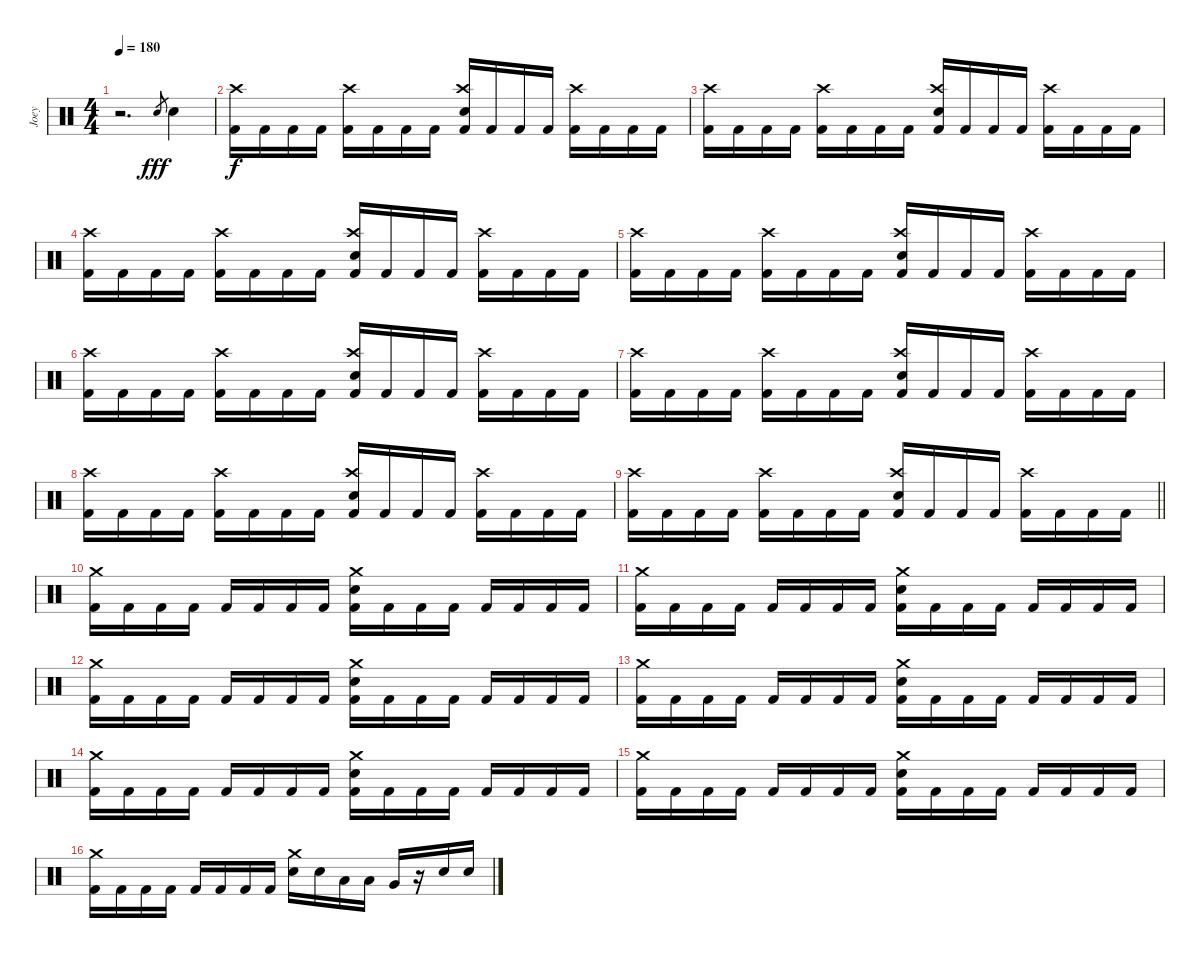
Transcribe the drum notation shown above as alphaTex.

\track ("Joey" "Joey") {instrument percussion}
\staff {score}
\articulation defaults
\ts (4 4)
\tempo 180
\clef neutral
\ks c
r.2{d dy f} "Electric Snare (hit)".8{gr dy fff} "Electric Snare (hit)".4 |
("Crash high (hit)" "Kick (hit) 2").16{dy f} "Kick (hit) 2".16 "Kick (hit) 2".16 "Kick (hit) 2".16 ("Crash high (hit)" "Kick (hit) 2").16 "Kick (hit) 2".16 "Kick (hit) 2".16 "Kick (hit) 2".16 ("Crash high (hit)" "Electric Snare (hit)" "Kick (hit) 2").16 "Kick (hit) 2".16 "Kick (hit) 2".16 "Kick (hit) 2".16 ("Crash high (hit)" "Kick (hit) 2").16 "Kick (hit) 2".16 "Kick (hit) 2".16 "Kick (hit) 2".16 |
("Crash high (hit)" "Kick (hit) 2").16 "Kick (hit) 2".16 "Kick (hit) 2".16 "Kick (hit) 2".16 ("Crash high (hit)" "Kick (hit) 2").16 "Kick (hit) 2".16 "Kick (hit) 2".16 "Kick (hit) 2".16 ("Crash high (hit)" "Electric Snare (hit)" "Kick (hit) 2").16 "Kick (hit) 2".16 "Kick (hit) 2".16 "Kick (hit) 2".16 ("Crash high (hit)" "Kick (hit) 2").16 "Kick (hit) 2".16 "Kick (hit) 2".16 "Kick (hit) 2".16 |
("Crash high (hit)" "Kick (hit) 2").16 "Kick (hit) 2".16 "Kick (hit) 2".16 "Kick (hit) 2".16 ("Crash high (hit)" "Kick (hit) 2").16 "Kick (hit) 2".16 "Kick (hit) 2".16 "Kick (hit) 2".16 ("Crash high (hit)" "Electric Snare (hit)" "Kick (hit) 2").16 "Kick (hit) 2".16 "Kick (hit) 2".16 "Kick (hit) 2".16 ("Crash high (hit)" "Kick (hit) 2").16 "Kick (hit) 2".16 "Kick (hit) 2".16 "Kick (hit) 2".16 |
("Crash high (hit)" "Kick (hit) 2").16 "Kick (hit) 2".16 "Kick (hit) 2".16 "Kick (hit) 2".16 ("Crash high (hit)" "Kick (hit) 2").16 "Kick (hit) 2".16 "Kick (hit) 2".16 "Kick (hit) 2".16 ("Crash high (hit)" "Electric Snare (hit)" "Kick (hit) 2").16 "Kick (hit) 2".16 "Kick (hit) 2".16 "Kick (hit) 2".16 ("Crash high (hit)" "Kick (hit) 2").16 "Kick (hit) 2".16 "Kick (hit) 2".16 "Kick (hit) 2".16 |
("Crash high (hit)" "Kick (hit) 2").16 "Kick (hit) 2".16 "Kick (hit) 2".16 "Kick (hit) 2".16 ("Crash high (hit)" "Kick (hit) 2").16 "Kick (hit) 2".16 "Kick (hit) 2".16 "Kick (hit) 2".16 ("Crash high (hit)" "Electric Snare (hit)" "Kick (hit) 2").16 "Kick (hit) 2".16 "Kick (hit) 2".16 "Kick (hit) 2".16 ("Crash high (hit)" "Kick (hit) 2").16 "Kick (hit) 2".16 "Kick (hit) 2".16 "Kick (hit) 2".16 |
("Crash high (hit)" "Kick (hit) 2").16 "Kick (hit) 2".16 "Kick (hit) 2".16 "Kick (hit) 2".16 ("Crash high (hit)" "Kick (hit) 2").16 "Kick (hit) 2".16 "Kick (hit) 2".16 "Kick (hit) 2".16 ("Crash high (hit)" "Electric Snare (hit)" "Kick (hit) 2").16 "Kick (hit) 2".16 "Kick (hit) 2".16 "Kick (hit) 2".16 ("Crash high (hit)" "Kick (hit) 2").16 "Kick (hit) 2".16 "Kick (hit) 2".16 "Kick (hit) 2".16 |
("Crash high (hit)" "Kick (hit) 2").16 "Kick (hit) 2".16 "Kick (hit) 2".16 "Kick (hit) 2".16 ("Crash high (hit)" "Kick (hit) 2").16 "Kick (hit) 2".16 "Kick (hit) 2".16 "Kick (hit) 2".16 ("Crash high (hit)" "Electric Snare (hit)" "Kick (hit) 2").16 "Kick (hit) 2".16 "Kick (hit) 2".16 "Kick (hit) 2".16 ("Crash high (hit)" "Kick (hit) 2").16 "Kick (hit) 2".16 "Kick (hit) 2".16 "Kick (hit) 2".16 |
\barLineRight lightlight
("Crash high (hit)" "Kick (hit) 2").16 "Kick (hit) 2".16 "Kick (hit) 2".16 "Kick (hit) 2".16 ("Crash high (hit)" "Kick (hit) 2").16 "Kick (hit) 2".16 "Kick (hit) 2".16 "Kick (hit) 2".16 ("Crash high (hit)" "Electric Snare (hit)" "Kick (hit) 2").16 "Kick (hit) 2".16 "Kick (hit) 2".16 "Kick (hit) 2".16 ("Crash high (hit)" "Kick (hit) 2").16 "Kick (hit) 2".16 "Kick (hit) 2".16 "Kick (hit) 2".16 |
\section ("" "")
("Crash medium (hit)" "Kick (hit) 2").16 "Kick (hit) 2".16 "Kick (hit) 2".16 "Kick (hit) 2".16 "Kick (hit) 2".16 "Kick (hit) 2".16 "Kick (hit) 2".16 "Kick (hit) 2".16 ("Crash medium (hit)" "Electric Snare (hit)" "Kick (hit) 2").16 "Kick (hit) 2".16 "Kick (hit) 2".16 "Kick (hit) 2".16 "Kick (hit) 2".16 "Kick (hit) 2".16 "Kick (hit) 2".16 "Kick (hit) 2".16 |
("Crash medium (hit)" "Kick (hit) 2").16 "Kick (hit) 2".16 "Kick (hit) 2".16 "Kick (hit) 2".16 "Kick (hit) 2".16 "Kick (hit) 2".16 "Kick (hit) 2".16 "Kick (hit) 2".16 ("Crash medium (hit)" "Electric Snare (hit)" "Kick (hit) 2").16 "Kick (hit) 2".16 "Kick (hit) 2".16 "Kick (hit) 2".16 "Kick (hit) 2".16 "Kick (hit) 2".16 "Kick (hit) 2".16 "Kick (hit) 2".16 |
("Crash medium (hit)" "Kick (hit) 2").16 "Kick (hit) 2".16 "Kick (hit) 2".16 "Kick (hit) 2".16 "Kick (hit) 2".16 "Kick (hit) 2".16 "Kick (hit) 2".16 "Kick (hit) 2".16 ("Crash medium (hit)" "Electric Snare (hit)" "Kick (hit) 2").16 "Kick (hit) 2".16 "Kick (hit) 2".16 "Kick (hit) 2".16 "Kick (hit) 2".16 "Kick (hit) 2".16 "Kick (hit) 2".16 "Kick (hit) 2".16 |
("Crash medium (hit)" "Kick (hit) 2").16 "Kick (hit) 2".16 "Kick (hit) 2".16 "Kick (hit) 2".16 "Kick (hit) 2".16 "Kick (hit) 2".16 "Kick (hit) 2".16 "Kick (hit) 2".16 ("Crash medium (hit)" "Electric Snare (hit)" "Kick (hit) 2").16 "Kick (hit) 2".16 "Kick (hit) 2".16 "Kick (hit) 2".16 "Kick (hit) 2".16 "Kick (hit) 2".16 "Kick (hit) 2".16 "Kick (hit) 2".16 |
("Crash medium (hit)" "Kick (hit) 2").16 "Kick (hit) 2".16 "Kick (hit) 2".16 "Kick (hit) 2".16 "Kick (hit) 2".16 "Kick (hit) 2".16 "Kick (hit) 2".16 "Kick (hit) 2".16 ("Crash medium (hit)" "Electric Snare (hit)" "Kick (hit) 2").16 "Kick (hit) 2".16 "Kick (hit) 2".16 "Kick (hit) 2".16 "Kick (hit) 2".16 "Kick (hit) 2".16 "Kick (hit) 2".16 "Kick (hit) 2".16 |
("Crash medium (hit)" "Kick (hit) 2").16 "Kick (hit) 2".16 "Kick (hit) 2".16 "Kick (hit) 2".16 "Kick (hit) 2".16 "Kick (hit) 2".16 "Kick (hit) 2".16 "Kick (hit) 2".16 ("Crash medium (hit)" "Electric Snare (hit)" "Kick (hit) 2").16 "Kick (hit) 2".16 "Kick (hit) 2".16 "Kick (hit) 2".16 "Kick (hit) 2".16 "Kick (hit) 2".16 "Kick (hit) 2".16 "Kick (hit) 2".16 |
("Crash medium (hit)" "Kick (hit) 2").16 "Kick (hit) 2".16 "Kick (hit) 2".16 "Kick (hit) 2".16 "Kick (hit) 2".16 "Kick (hit) 2".16 "Kick (hit) 2".16 "Kick (hit) 2".16 ("Crash medium (hit)" "Electric Snare (hit)").16 "Electric Snare (hit)".16 "Low Tom (hit)".16 "Low Tom (hit)".16 "Very Low Tom (hit)".16 r.16 "Electric Snare (hit)".16 "Electric Snare (hit)".16
